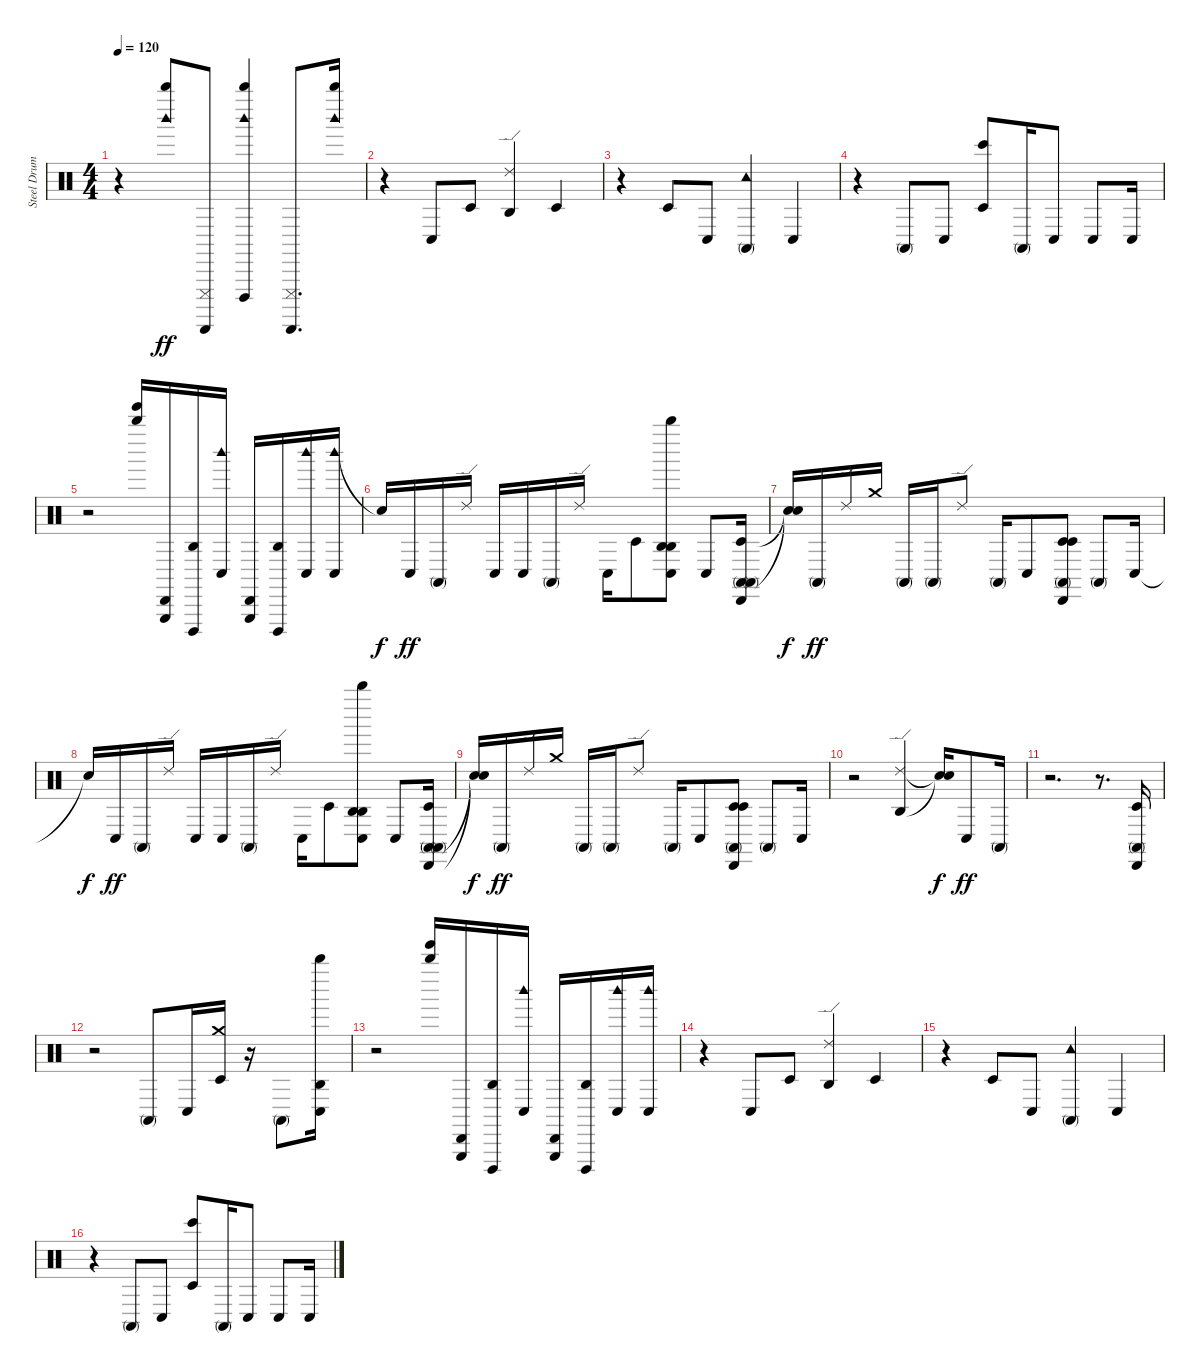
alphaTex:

\track ("Steel Drums" "Steel Drum") {instrument percussion}
\staff {score}
\articulation defaults
\ts (4 4)
\tempo 120
\clef neutral
\ks c
r.4{dy ff} ("Woodblock high (hit)" "Whistle high (hit)").8 ("Cuica (mute)" "Guiro (scrap-return)").8 ("Woodblock high (hit)" "Whistle high (hit)" "Cuica (open)").4 ("Guiro (scrap-return)" "Cuica (mute)").8{d} ("Woodblock high (hit)" "Whistle high (hit)").16 |
r.4 "Conga low (hit)".8 "Timbale low (hit)".8 ("Ride (edge) 2" "Agogo high (hit)").4 "Timbale low (hit)".4 |
r.4 "Timbale low (hit)".8 "Conga low (hit)".8 ("Tambourine (hit)" "Conga high (mute)").4 "Conga low (hit)".4 |
r.4 "Conga high (mute)".8 "Conga low (hit)".8 ("Timbale low (hit)" "Bongo High (hit)").8 "Conga high (mute)".16 "Conga low (hit)".8 "Conga low (hit)".8 "Conga low (hit)".16 |
r.2 ("Whistle high (hit)" "Tinkle Bell (hit)").16 ("Cabasa (hit)" "Triangle (hit)").16 ("Cuica (open)" "Agogo high (hit)").16 ("Conga low (hit)" "Woodblock high (hit)").16 ("Triangle (hit)" "Cabasa (hit)").16 ("Agogo high (hit)" "Cuica (open)").16 ("Conga low (hit)" "Woodblock high (hit)").16 ("Woodblock high (hit)" "Conga low (hit)").16 |
"Snare (hit)"{t}.16{dy f} "Conga low (hit)".16{dy ff} "Conga high (mute)".16 "Ride (edge) 2".16 "Conga low (hit)".16 "Conga low (hit)".16 "Conga high (mute)".16 "Ride (edge) 2".16 "Conga low (hit)".16 "Timbale low (hit)".8 ("Agogo high (hit)" "Whistle high (hit)" "Agogo high (hit)" "Conga low (hit)").8 "Conga low (hit)".8 ("Conga high (mute)" "Timbale low (hit)" "Conga high (mute)" "Cabasa (hit)").16 |
("Snare (hit)"{t} "Snare (hit)"{t}).16{dy f} "Conga high (mute)".16{dy ff} "Ride (edge) 2".16 "Crash medium (hit)".16 "Conga high (mute)".16 "Conga high (mute)".16 "Ride (edge) 2".8 "Conga high (mute)".16 "Conga low (hit)".8 ("Timbale low (hit)" "Timbale low (hit)" "Cabasa (hit)" "Conga high (mute)").8 "Conga high (mute)".8 "Conga low (hit)".16 |
"Snare (hit)"{t}.16{dy f} "Conga low (hit)".16{dy ff} "Conga high (mute)".16 "Ride (edge) 2".16 "Conga low (hit)".16 "Conga low (hit)".16 "Conga high (mute)".16 "Ride (edge) 2".16 "Conga low (hit)".16 "Timbale low (hit)".8 ("Whistle high (hit)" "Agogo high (hit)" "Agogo high (hit)" "Conga low (hit)").8 "Conga low (hit)".8 ("Conga high (mute)" "Cabasa (hit)" "Conga high (mute)" "Timbale low (hit)").16 |
("Snare (hit)"{t} "Snare (hit)"{t}).16{dy f} "Conga high (mute)".16{dy ff} "Ride (edge) 2".16 "Crash medium (hit)".16 "Conga high (mute)".16 "Conga high (mute)".16 "Ride (edge) 2".8 "Conga high (mute)".16 "Conga low (hit)".8 ("Cabasa (hit)" "Timbale low (hit)" "Conga high (mute)" "Timbale low (hit)").8 "Conga high (mute)".8 "Conga low (hit)".16 |
r.2 ("Agogo high (hit)" "Ride (edge) 2").4 ("Snare (hit)"{t} "Snare (hit)"{t}).16{dy f} "Conga low (hit)".8{dy ff} "Conga high (mute)".16 |
r.2{d} r.8{d} ("Timbale low (hit)" "Conga high (mute)" "Cabasa (hit)").16 |
r.2 "Conga high (mute)".8 "Conga low (hit)".16 ("Crash medium (hit)" "Timbale low (hit)").16 r.16 "Conga high (mute)".8 ("Agogo high (hit)" "Conga low (hit)" "Whistle high (hit)").16 |
r.2 ("Tinkle Bell (hit)" "Whistle high (hit)").16 ("Cabasa (hit)" "Triangle (hit)").16 ("Cuica (open)" "Agogo high (hit)").16 ("Conga low (hit)" "Woodblock high (hit)").16 ("Cabasa (hit)" "Triangle (hit)").16 ("Agogo high (hit)" "Cuica (open)").16 ("Conga low (hit)" "Woodblock high (hit)").16 ("Woodblock high (hit)" "Conga low (hit)").16 |
r.4 "Conga low (hit)".8 "Timbale low (hit)".8 ("Ride (edge) 2" "Agogo high (hit)").4 "Timbale low (hit)".4 |
r.4 "Timbale low (hit)".8 "Conga low (hit)".8 ("Tambourine (hit)" "Conga high (mute)").4 "Conga low (hit)".4 |
r.4 "Conga high (mute)".8 "Conga low (hit)".8 ("Bongo High (hit)" "Timbale low (hit)").8 "Conga high (mute)".16 "Conga low (hit)".8 "Conga low (hit)".8 "Conga low (hit)".16
